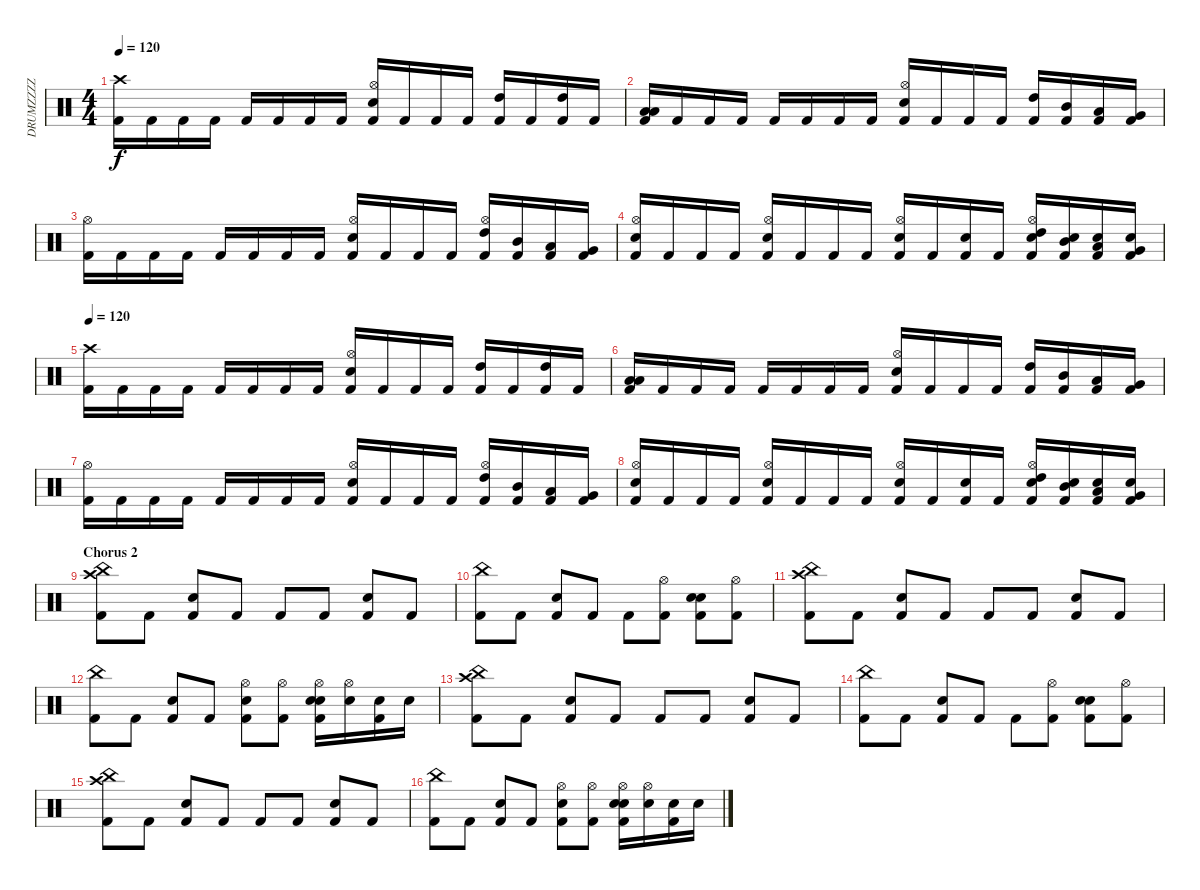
\track ("DRUMZZZZ" "DRUMZZZZ") {instrument percussion}
\staff {score}
\articulation defaults
\ts (4 4)
\tempo 120
\clef neutral
\ks c
("Crash high (hit)" "Kick (hit) 2").16{dy f} "Kick (hit) 2".16 "Kick (hit) 2".16 "Kick (hit) 2".16 "Kick (hit) 2".16 "Kick (hit) 2".16 "Kick (hit) 2".16 "Kick (hit) 2".16 ("Hi-Hat (open)" "Kick (hit) 2" "Snare (hit) 2").16 "Kick (hit) 2".16 "Kick (hit) 2".16 "Kick (hit) 2".16 ("Kick (hit) 2" "High Tom (hit)").16 "Kick (hit) 2".16 ("Kick (hit) 2" "High Tom (hit)").16 "Kick (hit) 2".16 |
("Kick (hit) 2" "Low Tom (hit)" "Low Tom (hit)").16 "Kick (hit) 2".16 "Kick (hit) 2".16 "Kick (hit) 2".16 "Kick (hit) 2".16 "Kick (hit) 2".16 "Kick (hit) 2".16 "Kick (hit) 2".16 ("Hi-Hat (open)" "Kick (hit) 2" "Snare (hit) 2").16 "Kick (hit) 2".16 "Kick (hit) 2".16 "Kick (hit) 2".16 ("Kick (hit) 2" "High Tom (hit)").16 ("Kick (hit) 2" "Mid Tom (hit)").16 ("Kick (hit) 2" "Low Tom (hit)").16 ("Kick (hit) 2" "Very Low Tom (hit)").16 |
("Hi-Hat (open)" "Kick (hit) 2").16 "Kick (hit) 2".16 "Kick (hit) 2".16 "Kick (hit) 2".16 "Kick (hit) 2".16 "Kick (hit) 2".16 "Kick (hit) 2".16 "Kick (hit) 2".16 ("Hi-Hat (open)" "Kick (hit) 2" "Snare (hit) 2").16 "Kick (hit) 2".16 "Kick (hit) 2".16 "Kick (hit) 2".16 ("Hi-Hat (open)" "Kick (hit) 2" "High Tom (hit)").16 ("Kick (hit) 2" "Mid Tom (hit)").16 ("Kick (hit) 2" "Low Tom (hit)").16 ("Kick (hit) 2" "Very Low Tom (hit)").16 |
("Hi-Hat (open)" "Kick (hit) 2" "Electric Snare (hit)").16 "Kick (hit) 2".16 "Kick (hit) 2".16 "Kick (hit) 2".16 ("Hi-Hat (open)" "Kick (hit) 2" "Electric Snare (hit)").16 "Kick (hit) 2".16 "Kick (hit) 2".16 "Kick (hit) 2".16 ("Hi-Hat (open)" "Kick (hit) 2" "Electric Snare (hit)").16 "Kick (hit) 2".16 ("Kick (hit) 2" "Electric Snare (hit)").16 "Kick (hit) 2".16 ("Hi-Hat (open)" "Kick (hit) 2" "High Tom (hit)" "Electric Snare (hit)").16 ("Kick (hit) 2" "Mid Tom (hit)" "Electric Snare (hit)").16 ("Kick (hit) 2" "Low Tom (hit)" "Electric Snare (hit)").16 ("Kick (hit) 2" "Very Low Tom (hit)" "Electric Snare (hit)").16 |
\tempo 120
("Crash high (hit)" "Kick (hit) 2").16 "Kick (hit) 2".16 "Kick (hit) 2".16 "Kick (hit) 2".16 "Kick (hit) 2".16 "Kick (hit) 2".16 "Kick (hit) 2".16 "Kick (hit) 2".16 ("Hi-Hat (open)" "Kick (hit) 2" "Snare (hit) 2").16 "Kick (hit) 2".16 "Kick (hit) 2".16 "Kick (hit) 2".16 ("Kick (hit) 2" "High Tom (hit)").16 "Kick (hit) 2".16 ("Kick (hit) 2" "High Tom (hit)").16 "Kick (hit) 2".16 |
("Kick (hit) 2" "Low Tom (hit)" "Low Tom (hit)").16 "Kick (hit) 2".16 "Kick (hit) 2".16 "Kick (hit) 2".16 "Kick (hit) 2".16 "Kick (hit) 2".16 "Kick (hit) 2".16 "Kick (hit) 2".16 ("Hi-Hat (open)" "Kick (hit) 2" "Snare (hit) 2").16 "Kick (hit) 2".16 "Kick (hit) 2".16 "Kick (hit) 2".16 ("Kick (hit) 2" "High Tom (hit)").16 ("Kick (hit) 2" "Mid Tom (hit)").16 ("Kick (hit) 2" "Low Tom (hit)").16 ("Kick (hit) 2" "Very Low Tom (hit)").16 |
("Hi-Hat (open)" "Kick (hit) 2").16 "Kick (hit) 2".16 "Kick (hit) 2".16 "Kick (hit) 2".16 "Kick (hit) 2".16 "Kick (hit) 2".16 "Kick (hit) 2".16 "Kick (hit) 2".16 ("Hi-Hat (open)" "Kick (hit) 2" "Snare (hit) 2").16 "Kick (hit) 2".16 "Kick (hit) 2".16 "Kick (hit) 2".16 ("Hi-Hat (open)" "Kick (hit) 2" "High Tom (hit)").16 ("Kick (hit) 2" "Mid Tom (hit)").16 ("Kick (hit) 2" "Low Tom (hit)").16 ("Kick (hit) 2" "Very Low Tom (hit)").16 |
("Hi-Hat (open)" "Kick (hit) 2" "Electric Snare (hit)").16 "Kick (hit) 2".16 "Kick (hit) 2".16 "Kick (hit) 2".16 ("Hi-Hat (open)" "Kick (hit) 2" "Electric Snare (hit)").16 "Kick (hit) 2".16 "Kick (hit) 2".16 "Kick (hit) 2".16 ("Hi-Hat (open)" "Kick (hit) 2" "Electric Snare (hit)").16 "Kick (hit) 2".16 ("Kick (hit) 2" "Electric Snare (hit)").16 "Kick (hit) 2".16 ("Hi-Hat (open)" "Kick (hit) 2" "High Tom (hit)" "Electric Snare (hit)").16 ("Kick (hit) 2" "Mid Tom (hit)" "Electric Snare (hit)").16 ("Kick (hit) 2" "Low Tom (hit)" "Electric Snare (hit)").16 ("Kick (hit) 2" "Very Low Tom (hit)" "Electric Snare (hit)").16 |
\section ("" "Chorus 2")
("Crash high (hit)" "China (hit)" "Kick (hit) 2").8 "Kick (hit) 2".8 ("Kick (hit) 2" "Snare (hit) 2").8 "Kick (hit) 2".8 "Kick (hit) 2".8 "Kick (hit) 2".8 ("Kick (hit) 2" "Snare (hit) 2").8 "Kick (hit) 2".8 |
("China (hit)" "Kick (hit) 2").8 "Kick (hit) 2".8 ("Kick (hit) 2" "Snare (hit) 2").8 "Kick (hit) 2".8 "Kick (hit) 2".8 ("Hi-Hat (open)" "Kick (hit) 2").8 ("Kick (hit) 2" "Electric Snare (hit)" "Snare (hit) 2").8 ("Hi-Hat (open)" "Kick (hit) 2").8 |
("Crash high (hit)" "China (hit)" "Kick (hit) 2").8 "Kick (hit) 2".8 ("Kick (hit) 2" "Snare (hit) 2").8 "Kick (hit) 2".8 "Kick (hit) 2".8 "Kick (hit) 2".8 ("Kick (hit) 2" "Snare (hit) 2").8 "Kick (hit) 2".8 |
("China (hit)" "Kick (hit) 2").8 "Kick (hit) 2".8 ("Kick (hit) 2" "Snare (hit) 2").8 "Kick (hit) 2".8 ("Hi-Hat (open)" "Kick (hit) 2" "Electric Snare (hit)").8 ("Hi-Hat (open)" "Kick (hit) 2").8 ("Hi-Hat (open)" "Kick (hit) 2" "Electric Snare (hit)" "Snare (hit) 2").16 ("Hi-Hat (open)" "Electric Snare (hit)").16 ("Kick (hit) 2" "Electric Snare (hit)").16 "Electric Snare (hit)".16 |
("Crash high (hit)" "China (hit)" "Kick (hit) 2").8 "Kick (hit) 2".8 ("Kick (hit) 2" "Snare (hit) 2").8 "Kick (hit) 2".8 "Kick (hit) 2".8 "Kick (hit) 2".8 ("Kick (hit) 2" "Snare (hit) 2").8 "Kick (hit) 2".8 |
("China (hit)" "Kick (hit) 2").8 "Kick (hit) 2".8 ("Kick (hit) 2" "Snare (hit) 2").8 "Kick (hit) 2".8 "Kick (hit) 2".8 ("Hi-Hat (open)" "Kick (hit) 2").8 ("Kick (hit) 2" "Electric Snare (hit)" "Snare (hit) 2").8 ("Hi-Hat (open)" "Kick (hit) 2").8 |
("Crash high (hit)" "China (hit)" "Kick (hit) 2").8 "Kick (hit) 2".8 ("Kick (hit) 2" "Snare (hit) 2").8 "Kick (hit) 2".8 "Kick (hit) 2".8 "Kick (hit) 2".8 ("Kick (hit) 2" "Snare (hit) 2").8 "Kick (hit) 2".8 |
("China (hit)" "Kick (hit) 2").8 "Kick (hit) 2".8 ("Kick (hit) 2" "Snare (hit) 2").8 "Kick (hit) 2".8 ("Hi-Hat (open)" "Kick (hit) 2" "Electric Snare (hit)").8 ("Hi-Hat (open)" "Kick (hit) 2").8 ("Hi-Hat (open)" "Kick (hit) 2" "Electric Snare (hit)" "Snare (hit) 2").16 ("Hi-Hat (open)" "Electric Snare (hit)").16 ("Kick (hit) 2" "Electric Snare (hit)").16 "Electric Snare (hit)".16
